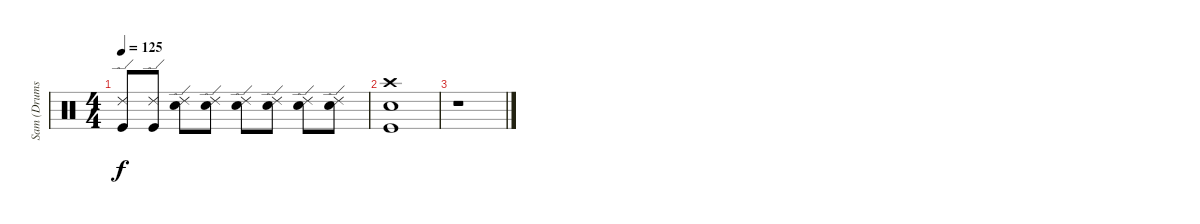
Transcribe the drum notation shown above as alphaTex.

\track ("Sam (Drums)" "Sam (Drums") {instrument percussion}
\staff {score}
\articulation defaults
\ts (4 4)
\tempo 125
\clef neutral
\ks c
("Ride (edge) 2" "Kick (hit)").8{dy f} ("Ride (edge) 2" "Kick (hit)").8 ("Ride (edge) 2" "Snare (hit) 2").8 ("Ride (edge) 2" "Snare (hit) 2").8 ("Ride (edge) 2" "Snare (hit) 2").8 ("Ride (edge) 2" "Snare (hit) 2").8 ("Ride (edge) 2" "Snare (hit) 2").8 ("Ride (edge) 2" "Snare (hit) 2").8 |
("Crash high (hit)" "Snare (hit) 2" "Kick (hit)").1 |
r.1
